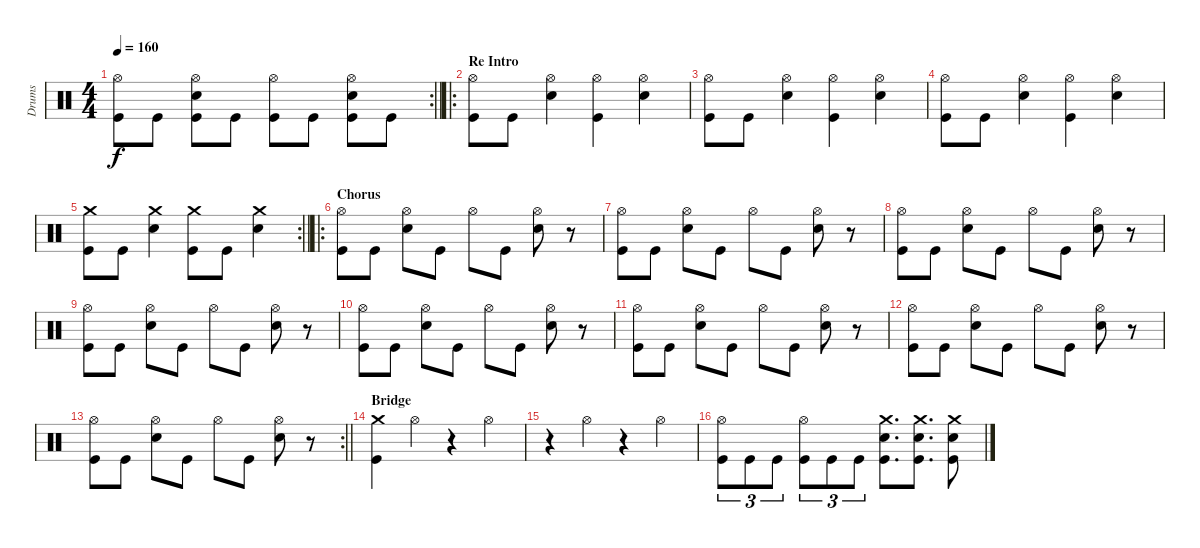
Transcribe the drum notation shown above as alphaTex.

\track ("Drums" "Drums") {instrument percussion}
\staff {score}
\articulation defaults
\rc 2
\ts (4 4)
\tempo 160
\clef neutral
\barLineRight lightlight
\ks c
("Hi-Hat (open)" "Kick (hit)").8{dy f} "Kick (hit)".8 ("Hi-Hat (open)" "Snare (hit) 2" "Kick (hit)").8 "Kick (hit)".8 ("Hi-Hat (open)" "Kick (hit)").8 "Kick (hit)".8 ("Hi-Hat (open)" "Snare (hit) 2" "Kick (hit)").8 "Kick (hit)".8 |
\ro
\section ("" "Re Intro")
("Hi-Hat (open)" "Kick (hit)").8 "Kick (hit)".8 ("Hi-Hat (open)" "Snare (hit) 2").4 ("Hi-Hat (open)" "Kick (hit)").4 ("Hi-Hat (open)" "Snare (hit) 2").4 |
("Hi-Hat (open)" "Kick (hit)").8 "Kick (hit)".8 ("Hi-Hat (open)" "Snare (hit) 2").4 ("Hi-Hat (open)" "Kick (hit)").4 ("Hi-Hat (open)" "Snare (hit) 2").4 |
("Hi-Hat (open)" "Kick (hit)").8 "Kick (hit)".8 ("Hi-Hat (open)" "Snare (hit) 2").4 ("Hi-Hat (open)" "Kick (hit)").4 ("Hi-Hat (open)" "Snare (hit) 2").4 |
\rc 2
\barLineRight lightlight
("Crash medium (hit)" "Kick (hit)").8 "Kick (hit)".8 ("Crash medium (hit)" "Snare (hit) 2").4 ("Crash medium (hit)" "Kick (hit)").8 "Kick (hit)".8 ("Crash medium (hit)" "Snare (hit) 2").4 |
\ro
\section ("" "Chorus")
("Hi-Hat (open)" "Kick (hit)").8 "Kick (hit)".8 ("Hi-Hat (open)" "Snare (hit) 2").8 "Kick (hit)".8 "Hi-Hat (open)".8 "Kick (hit)".8 ("Hi-Hat (open)" "Snare (hit) 2").8 r.8 |
("Hi-Hat (open)" "Kick (hit)").8 "Kick (hit)".8 ("Hi-Hat (open)" "Snare (hit) 2").8 "Kick (hit)".8 "Hi-Hat (open)".8 "Kick (hit)".8 ("Hi-Hat (open)" "Snare (hit) 2").8 r.8 |
("Hi-Hat (open)" "Kick (hit)").8 "Kick (hit)".8 ("Hi-Hat (open)" "Snare (hit) 2").8 "Kick (hit)".8 "Hi-Hat (open)".8 "Kick (hit)".8 ("Hi-Hat (open)" "Snare (hit) 2").8 r.8 |
("Hi-Hat (open)" "Kick (hit)").8 "Kick (hit)".8 ("Hi-Hat (open)" "Snare (hit) 2").8 "Kick (hit)".8 "Hi-Hat (open)".8 "Kick (hit)".8 ("Hi-Hat (open)" "Snare (hit) 2").8 r.8 |
("Hi-Hat (open)" "Kick (hit)").8 "Kick (hit)".8 ("Hi-Hat (open)" "Snare (hit) 2").8 "Kick (hit)".8 "Hi-Hat (open)".8 "Kick (hit)".8 ("Hi-Hat (open)" "Snare (hit) 2").8 r.8 |
("Hi-Hat (open)" "Kick (hit)").8 "Kick (hit)".8 ("Hi-Hat (open)" "Snare (hit) 2").8 "Kick (hit)".8 "Hi-Hat (open)".8 "Kick (hit)".8 ("Hi-Hat (open)" "Snare (hit) 2").8 r.8 |
("Hi-Hat (open)" "Kick (hit)").8 "Kick (hit)".8 ("Hi-Hat (open)" "Snare (hit) 2").8 "Kick (hit)".8 "Hi-Hat (open)".8 "Kick (hit)".8 ("Hi-Hat (open)" "Snare (hit) 2").8 r.8 |
\rc 2
\barLineRight lightlight
("Hi-Hat (open)" "Kick (hit)").8 "Kick (hit)".8 ("Hi-Hat (open)" "Snare (hit) 2").8 "Kick (hit)".8 "Hi-Hat (open)".8 "Kick (hit)".8 ("Hi-Hat (open)" "Snare (hit) 2").8 r.8 |
\section ("" "Bridge")
("Crash medium (hit)" "Kick (hit)").4 "Hi-Hat (open)".4 r.4 "Hi-Hat (open)".4 |
r.4 "Hi-Hat (open)".4 r.4 "Hi-Hat (open)".4 |
("Hi-Hat (open)" "Kick (hit)").8{tu (3 2)} "Kick (hit)".8{tu (3 2)} "Kick (hit)".8{tu (3 2)} ("Hi-Hat (open)" "Kick (hit)").8{tu (3 2)} "Kick (hit)".8{tu (3 2)} "Kick (hit)".8{tu (3 2)} ("Crash medium (hit)" "Snare (hit) 2" "Kick (hit)").8{d} ("Crash medium (hit)" "Snare (hit) 2" "Kick (hit)").8{d} ("Crash medium (hit)" "Snare (hit) 2" "Kick (hit)").8
